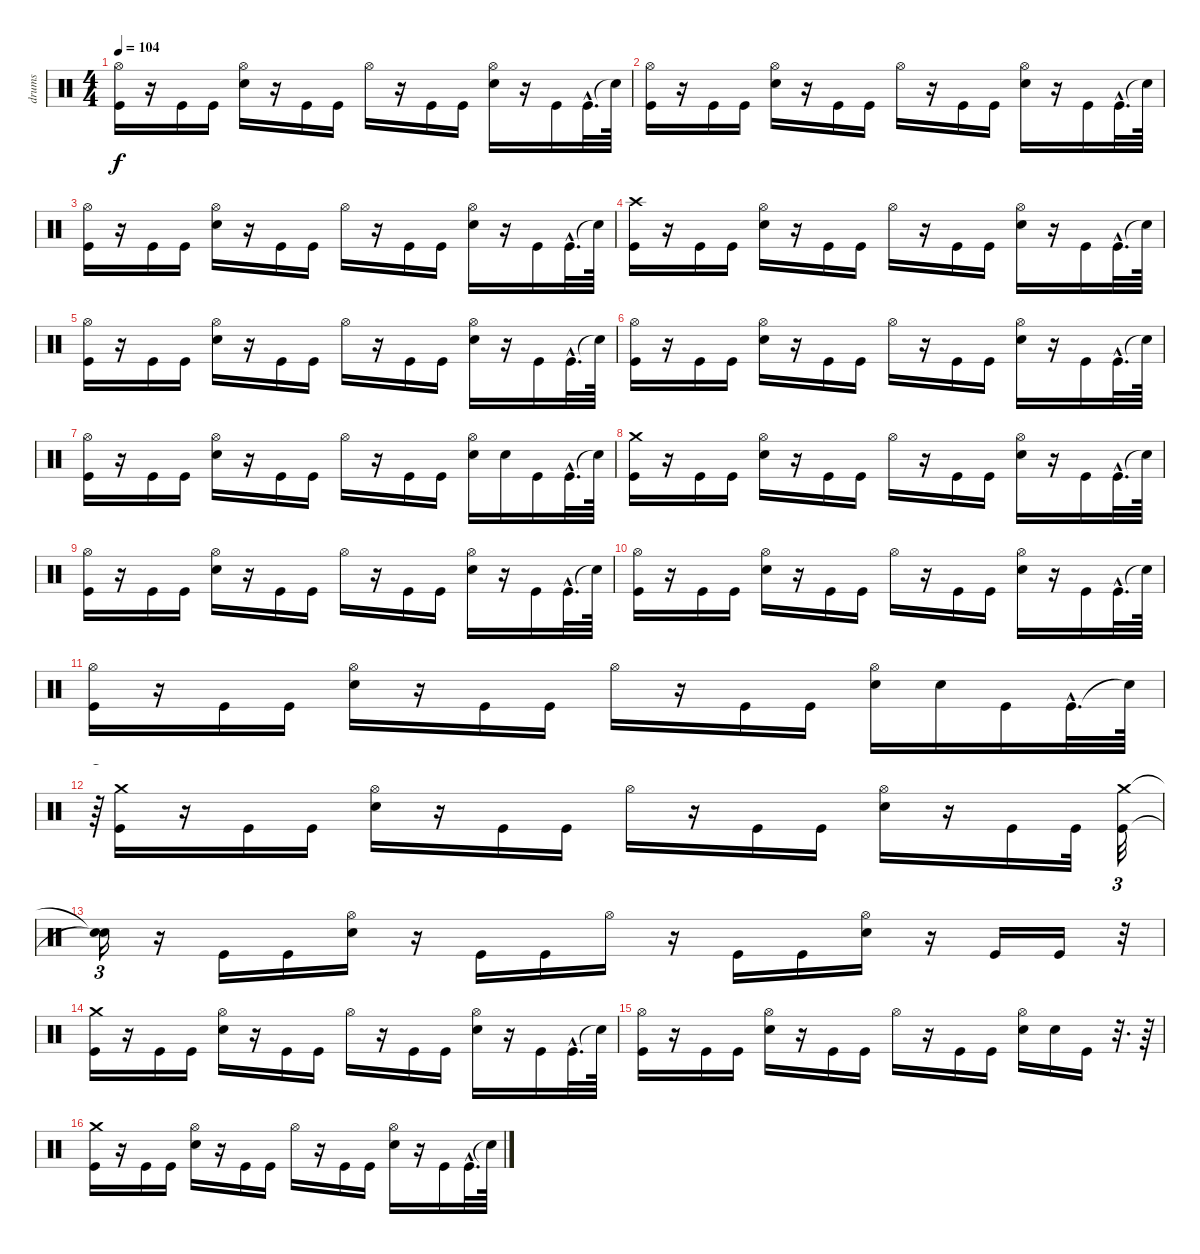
\track ("drums" "drums") {instrument percussion}
\staff {score}
\articulation defaults
\ts (4 4)
\tempo 104
\clef neutral
\ks c
("Hi-Hat (open)" "Kick (hit)").16{dy f} r.16 "Kick (hit)".16 "Kick (hit)".16 ("Hi-Hat (open)" "Electric Snare (hit)").16 r.16 "Kick (hit)".16 "Kick (hit)".16 "Hi-Hat (open)".16 r.16 "Kick (hit)".16 "Kick (hit)".16 ("Hi-Hat (open)" "Electric Snare (hit)").16 r.16 "Kick (hit)".16 "Kick (hit)"{hac}.32{d} "Snare (hit)"{t}.64 |
("Hi-Hat (open)" "Kick (hit)").16 r.16 "Kick (hit)".16 "Kick (hit)".16 ("Hi-Hat (open)" "Electric Snare (hit)").16 r.16 "Kick (hit)".16 "Kick (hit)".16 "Hi-Hat (open)".16 r.16 "Kick (hit)".16 "Kick (hit)".16 ("Hi-Hat (open)" "Electric Snare (hit)").16 r.16 "Kick (hit)".16 "Kick (hit)"{hac}.32{d} "Snare (hit)"{t}.64 |
("Hi-Hat (open)" "Kick (hit)").16 r.16 "Kick (hit)".16 "Kick (hit)".16 ("Hi-Hat (open)" "Electric Snare (hit)").16 r.16 "Kick (hit)".16 "Kick (hit)".16 "Hi-Hat (open)".16 r.16 "Kick (hit)".16 "Kick (hit)".16 ("Hi-Hat (open)" "Electric Snare (hit)").16 r.16 "Kick (hit)".16 "Kick (hit)"{hac}.32{d} "Snare (hit)"{t}.64 |
("Crash high (hit)" "Kick (hit)").16 r.16 "Kick (hit)".16 "Kick (hit)".16 ("Hi-Hat (open)" "Electric Snare (hit)").16 r.16 "Kick (hit)".16 "Kick (hit)".16 "Hi-Hat (open)".16 r.16 "Kick (hit)".16 "Kick (hit)".16 ("Hi-Hat (open)" "Electric Snare (hit)").16 r.16 "Kick (hit)".16 "Kick (hit)"{hac}.32{d} "Snare (hit)"{t}.64 |
("Hi-Hat (open)" "Kick (hit)").16 r.16 "Kick (hit)".16 "Kick (hit)".16 ("Hi-Hat (open)" "Electric Snare (hit)").16 r.16 "Kick (hit)".16 "Kick (hit)".16 "Hi-Hat (open)".16 r.16 "Kick (hit)".16 "Kick (hit)".16 ("Hi-Hat (open)" "Electric Snare (hit)").16 r.16 "Kick (hit)".16 "Kick (hit)"{hac}.32{d} "Snare (hit)"{t}.64 |
("Hi-Hat (open)" "Kick (hit)").16 r.16 "Kick (hit)".16 "Kick (hit)".16 ("Hi-Hat (open)" "Electric Snare (hit)").16 r.16 "Kick (hit)".16 "Kick (hit)".16 "Hi-Hat (open)".16 r.16 "Kick (hit)".16 "Kick (hit)".16 ("Hi-Hat (open)" "Electric Snare (hit)").16 r.16 "Kick (hit)".16 "Kick (hit)"{hac}.32{d} "Snare (hit)"{t}.64 |
("Hi-Hat (open)" "Kick (hit)").16 r.16 "Kick (hit)".16 "Kick (hit)".16 ("Hi-Hat (open)" "Electric Snare (hit)").16 r.16 "Kick (hit)".16 "Kick (hit)".16 "Hi-Hat (open)".16 r.16 "Kick (hit)".16 "Kick (hit)".16 ("Hi-Hat (open)" "Electric Snare (hit)").16 "Electric Snare (hit)".16 "Kick (hit)".16 "Kick (hit)"{hac}.32{d} "Snare (hit)"{t}.64 |
("Crash medium (hit)" "Kick (hit)").16 r.16 "Kick (hit)".16 "Kick (hit)".16 ("Hi-Hat (open)" "Electric Snare (hit)").16 r.16 "Kick (hit)".16 "Kick (hit)".16 "Hi-Hat (open)".16 r.16 "Kick (hit)".16 "Kick (hit)".16 ("Hi-Hat (open)" "Electric Snare (hit)").16 r.16 "Kick (hit)".16 "Kick (hit)"{hac}.32{d} "Snare (hit)"{t}.64 |
("Hi-Hat (open)" "Kick (hit)").16 r.16 "Kick (hit)".16 "Kick (hit)".16 ("Hi-Hat (open)" "Electric Snare (hit)").16 r.16 "Kick (hit)".16 "Kick (hit)".16 "Hi-Hat (open)".16 r.16 "Kick (hit)".16 "Kick (hit)".16 ("Hi-Hat (open)" "Electric Snare (hit)").16 r.16 "Kick (hit)".16 "Kick (hit)"{hac}.32{d} "Snare (hit)"{t}.64 |
("Hi-Hat (open)" "Kick (hit)").16 r.16 "Kick (hit)".16 "Kick (hit)".16 ("Hi-Hat (open)" "Electric Snare (hit)").16 r.16 "Kick (hit)".16 "Kick (hit)".16 "Hi-Hat (open)".16 r.16 "Kick (hit)".16 "Kick (hit)".16 ("Hi-Hat (open)" "Electric Snare (hit)").16 r.16 "Kick (hit)".16 "Kick (hit)"{hac}.32{d} "Snare (hit)"{t}.64 |
("Hi-Hat (open)" "Kick (hit)").16 r.16 "Kick (hit)".16 "Kick (hit)".16 ("Hi-Hat (open)" "Electric Snare (hit)").16 r.16 "Kick (hit)".16 "Kick (hit)".16 "Hi-Hat (open)".16 r.16 "Kick (hit)".16 "Kick (hit)".16 ("Hi-Hat (open)" "Electric Snare (hit)").16 "Electric Snare (hit)".16 "Kick (hit)".16 "Kick (hit)"{hac}.32{d} "Snare (hit)"{t}.64 |
r.64{tu (3 2)} ("Crash medium (hit)" "Kick (hit)").16 r.16 "Kick (hit)".16 "Kick (hit)".16 ("Hi-Hat (open)" "Electric Snare (hit)").16 r.16 "Kick (hit)".16 "Kick (hit)".16 "Hi-Hat (open)".16 r.16 "Kick (hit)".16 "Kick (hit)".16 ("Hi-Hat (open)" "Electric Snare (hit)").16 r.16 "Kick (hit)".16 "Kick (hit)".32 ("Crash medium (hit)" "Kick (hit)").32{tu (3 2)} |
("Snare (hit)"{t} "Snare (hit)"{t}).16{tu (3 2)} r.16 "Kick (hit)".16 "Kick (hit)".16 ("Hi-Hat (open)" "Electric Snare (hit)").16 r.16 "Kick (hit)".16 "Kick (hit)".16 "Hi-Hat (open)".16 r.16 "Kick (hit)".16 "Kick (hit)".16 ("Hi-Hat (open)" "Electric Snare (hit)").16 r.16 "Kick (hit)".16 "Kick (hit)".16 r.32{tu (3 2)} |
("Crash medium (hit)" "Kick (hit)").16 r.16 "Kick (hit)".16 "Kick (hit)".16 ("Hi-Hat (open)" "Electric Snare (hit)").16 r.16 "Kick (hit)".16 "Kick (hit)".16 "Hi-Hat (open)".16 r.16 "Kick (hit)".16 "Kick (hit)".16 ("Hi-Hat (open)" "Electric Snare (hit)").16 r.16 "Kick (hit)".16 "Kick (hit)"{hac}.32{d} "Snare (hit)"{t}.64 |
("Hi-Hat (open)" "Kick (hit)").16 r.16 "Kick (hit)".16 "Kick (hit)".16 ("Hi-Hat (open)" "Electric Snare (hit)").16 r.16 "Kick (hit)".16 "Kick (hit)".16 "Hi-Hat (open)".16 r.16 "Kick (hit)".16 "Kick (hit)".16 ("Hi-Hat (open)" "Electric Snare (hit)").16 "Electric Snare (hit)".16 "Kick (hit)".16 r.32{d} r.64 |
("Crash medium (hit)" "Kick (hit)").16 r.16 "Kick (hit)".16 "Kick (hit)".16 ("Hi-Hat (open)" "Electric Snare (hit)").16 r.16 "Kick (hit)".16 "Kick (hit)".16 "Hi-Hat (open)".16 r.16 "Kick (hit)".16 "Kick (hit)".16 ("Hi-Hat (open)" "Electric Snare (hit)").16 r.16 "Kick (hit)".16 "Kick (hit)"{hac}.32{d} "Snare (hit)"{t}.64
